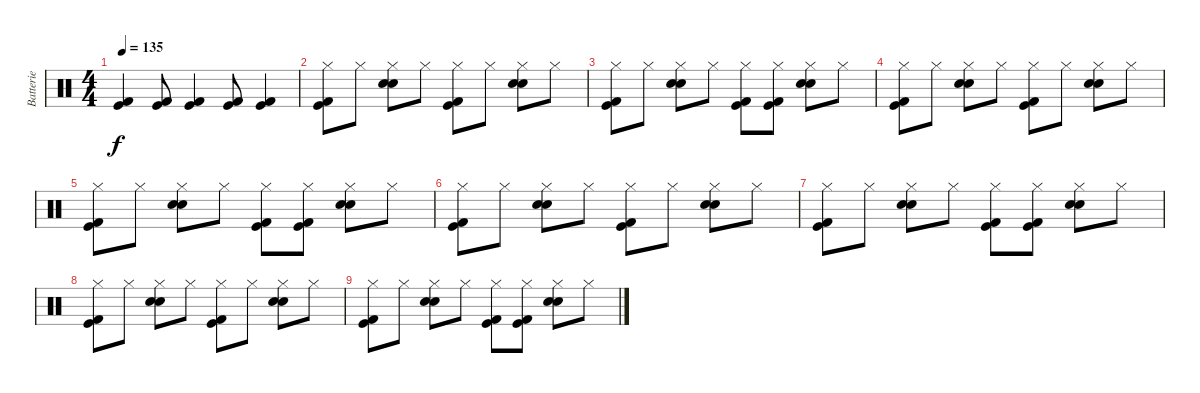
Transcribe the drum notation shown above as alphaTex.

\track ("Batterie" "Batterie") {instrument percussion}
\staff {score}
\articulation defaults
\ts (4 4)
\tempo 135
\clef neutral
\ks c
("Kick (hit)" "Kick (hit) 2").4{dy f} ("Kick (hit)" "Kick (hit) 2").8 ("Kick (hit)" "Kick (hit) 2").4 ("Kick (hit)" "Kick (hit) 2").8 ("Kick (hit)" "Kick (hit) 2").4 |
("Hi-Hat (closed)" "Kick (hit)" "Kick (hit) 2").8 "Hi-Hat (closed)".8 ("Hi-Hat (closed)" "Electric Snare (hit)" "Snare (hit) 2").8 "Hi-Hat (closed)".8 ("Hi-Hat (closed)" "Kick (hit)" "Kick (hit) 2").8 "Hi-Hat (closed)".8 ("Hi-Hat (closed)" "Snare (hit) 2" "Electric Snare (hit)").8 "Hi-Hat (closed)".8 |
("Hi-Hat (closed)" "Kick (hit)" "Kick (hit) 2").8 "Hi-Hat (closed)".8 ("Hi-Hat (closed)" "Electric Snare (hit)" "Snare (hit) 2").8 "Hi-Hat (closed)".8 ("Hi-Hat (closed)" "Kick (hit)" "Kick (hit) 2").8 ("Hi-Hat (closed)" "Kick (hit)" "Kick (hit) 2").8 ("Hi-Hat (closed)" "Electric Snare (hit)" "Snare (hit) 2").8 "Hi-Hat (closed)".8 |
("Hi-Hat (closed)" "Kick (hit)" "Kick (hit) 2").8 "Hi-Hat (closed)".8 ("Hi-Hat (closed)" "Electric Snare (hit)" "Snare (hit) 2").8 "Hi-Hat (closed)".8 ("Hi-Hat (closed)" "Kick (hit)" "Kick (hit) 2").8 "Hi-Hat (closed)".8 ("Hi-Hat (closed)" "Snare (hit) 2" "Electric Snare (hit)").8 "Hi-Hat (closed)".8 |
("Hi-Hat (closed)" "Kick (hit)" "Kick (hit) 2").8 "Hi-Hat (closed)".8 ("Hi-Hat (closed)" "Electric Snare (hit)" "Snare (hit) 2").8 "Hi-Hat (closed)".8 ("Hi-Hat (closed)" "Kick (hit)" "Kick (hit) 2").8 ("Hi-Hat (closed)" "Kick (hit)" "Kick (hit) 2").8 ("Hi-Hat (closed)" "Electric Snare (hit)" "Snare (hit) 2").8 "Hi-Hat (closed)".8 |
("Hi-Hat (closed)" "Kick (hit)" "Kick (hit) 2").8 "Hi-Hat (closed)".8 ("Hi-Hat (closed)" "Electric Snare (hit)" "Snare (hit) 2").8 "Hi-Hat (closed)".8 ("Hi-Hat (closed)" "Kick (hit)" "Kick (hit) 2").8 "Hi-Hat (closed)".8 ("Hi-Hat (closed)" "Snare (hit) 2" "Electric Snare (hit)").8 "Hi-Hat (closed)".8 |
("Hi-Hat (closed)" "Kick (hit)" "Kick (hit) 2").8 "Hi-Hat (closed)".8 ("Hi-Hat (closed)" "Electric Snare (hit)" "Snare (hit) 2").8 "Hi-Hat (closed)".8 ("Hi-Hat (closed)" "Kick (hit)" "Kick (hit) 2").8 ("Hi-Hat (closed)" "Kick (hit)" "Kick (hit) 2").8 ("Hi-Hat (closed)" "Electric Snare (hit)" "Snare (hit) 2").8 "Hi-Hat (closed)".8 |
("Hi-Hat (closed)" "Kick (hit)" "Kick (hit) 2").8 "Hi-Hat (closed)".8 ("Hi-Hat (closed)" "Electric Snare (hit)" "Snare (hit) 2").8 "Hi-Hat (closed)".8 ("Hi-Hat (closed)" "Kick (hit)" "Kick (hit) 2").8 "Hi-Hat (closed)".8 ("Hi-Hat (closed)" "Snare (hit) 2" "Electric Snare (hit)").8 "Hi-Hat (closed)".8 |
("Hi-Hat (closed)" "Kick (hit)" "Kick (hit) 2").8 "Hi-Hat (closed)".8 ("Hi-Hat (closed)" "Electric Snare (hit)" "Snare (hit) 2").8 "Hi-Hat (closed)".8 ("Hi-Hat (closed)" "Kick (hit)" "Kick (hit) 2").8 ("Hi-Hat (closed)" "Kick (hit)" "Kick (hit) 2").8 ("Hi-Hat (closed)" "Electric Snare (hit)" "Snare (hit) 2").8 "Hi-Hat (closed)".8
